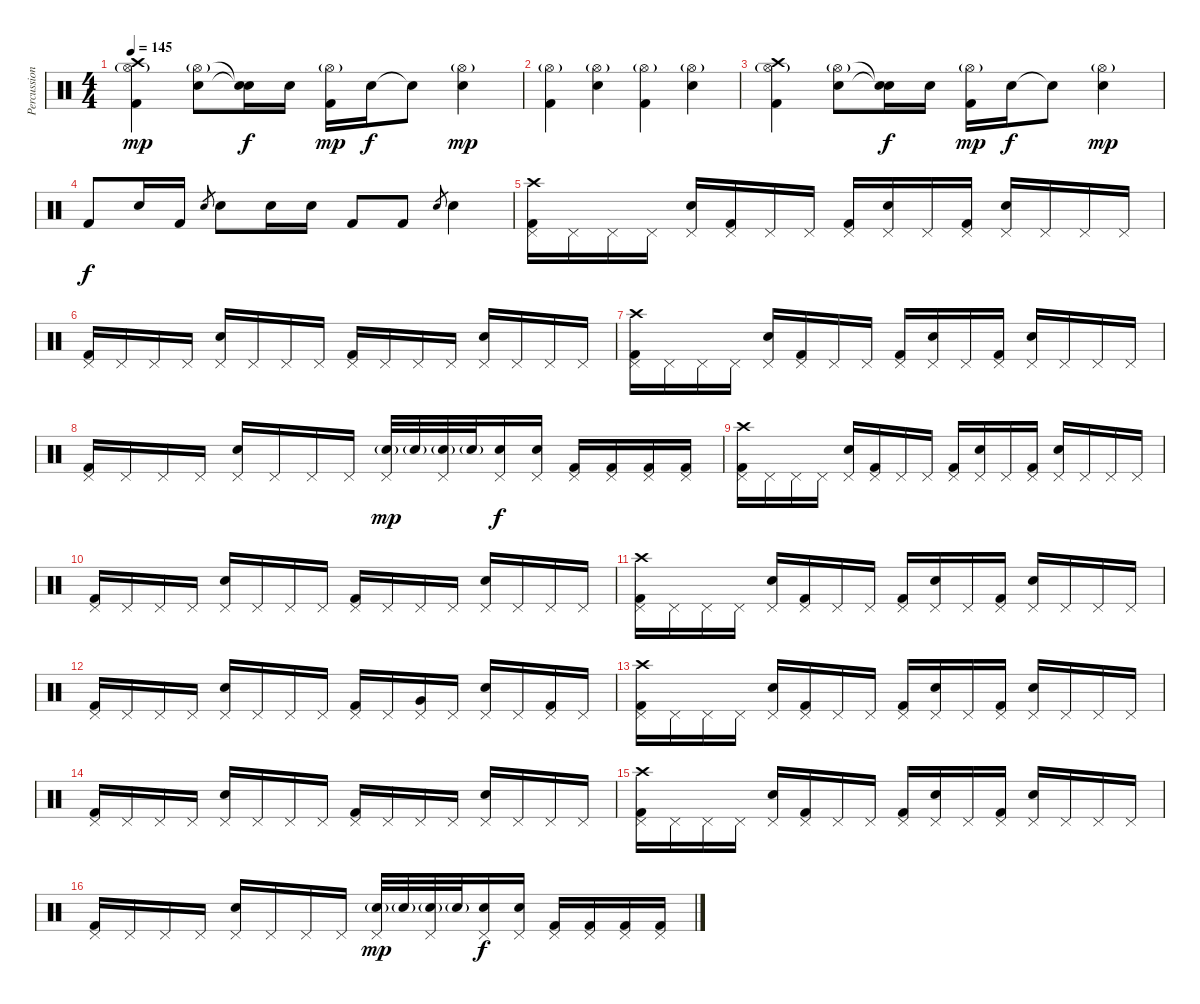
\track ("Percussion" "Percussion") {instrument percussion}
\staff {score}
\articulation defaults
\ts (4 4)
\tempo 145
\clef neutral
\ks c
("Hi-Hat (open)"{g} "Crash high (hit)" "Kick (hit) 2").4{dy mp} ("Hi-Hat (open)"{g} "Electric Snare (hit)").8 ("Snare (hit)"{t} "Snare (hit)"{t}).16{dy f} "Electric Snare (hit)".16 ("Hi-Hat (open)"{g} "Kick (hit) 2").16{dy mp} "Electric Snare (hit)".16{dy f} "Snare (hit)"{t}.8 ("Hi-Hat (open)"{g} "Electric Snare (hit)").4{dy mp} |
("Hi-Hat (open)"{g} "Kick (hit) 2").4 ("Hi-Hat (open)"{g} "Electric Snare (hit)").4 ("Hi-Hat (open)"{g} "Kick (hit) 2").4 ("Hi-Hat (open)"{g} "Electric Snare (hit)").4 |
("Hi-Hat (open)"{g} "Crash high (hit)" "Kick (hit) 2").4 ("Hi-Hat (open)"{g} "Electric Snare (hit)").8 ("Snare (hit)"{t} "Snare (hit)"{t}).16{dy f} "Electric Snare (hit)".16 ("Hi-Hat (open)"{g} "Kick (hit) 2").16{dy mp} "Electric Snare (hit)".16{dy f} "Snare (hit)"{t}.8 ("Hi-Hat (open)"{g} "Electric Snare (hit)").4{dy mp} |
"Kick (hit) 2".8{dy f} "Electric Snare (hit)".16 "Kick (hit) 2".16 "Electric Snare (hit)".8{gr} "Electric Snare (hit)".8 "Electric Snare (hit)".16 "Electric Snare (hit)".16 "Kick (hit) 2".8 "Kick (hit) 2".8 "Electric Snare (hit)".8{gr} "Electric Snare (hit)".4 |
("Pedal Hi-Hat (hit)" "Crash high (hit)" "Kick (hit) 2").16 "Pedal Hi-Hat (hit)".16 "Pedal Hi-Hat (hit)".16 "Pedal Hi-Hat (hit)".16 ("Pedal Hi-Hat (hit)" "Electric Snare (hit)").16 ("Pedal Hi-Hat (hit)" "Kick (hit) 2").16 "Pedal Hi-Hat (hit)".16 "Pedal Hi-Hat (hit)".16 ("Pedal Hi-Hat (hit)" "Kick (hit) 2").16 ("Pedal Hi-Hat (hit)" "Electric Snare (hit)").16 "Pedal Hi-Hat (hit)".16 ("Pedal Hi-Hat (hit)" "Kick (hit) 2").16 ("Pedal Hi-Hat (hit)" "Electric Snare (hit)").16 "Pedal Hi-Hat (hit)".16 "Pedal Hi-Hat (hit)".16 "Pedal Hi-Hat (hit)".16 |
("Pedal Hi-Hat (hit)" "Kick (hit) 2").16 "Pedal Hi-Hat (hit)".16 "Pedal Hi-Hat (hit)".16 "Pedal Hi-Hat (hit)".16 ("Pedal Hi-Hat (hit)" "Electric Snare (hit)").16 "Pedal Hi-Hat (hit)".16 "Pedal Hi-Hat (hit)".16 "Pedal Hi-Hat (hit)".16 ("Pedal Hi-Hat (hit)" "Kick (hit) 2").16 "Pedal Hi-Hat (hit)".16 "Pedal Hi-Hat (hit)".16 "Pedal Hi-Hat (hit)".16 ("Pedal Hi-Hat (hit)" "Electric Snare (hit)").16 "Pedal Hi-Hat (hit)".16 "Pedal Hi-Hat (hit)".16 "Pedal Hi-Hat (hit)".16 |
("Pedal Hi-Hat (hit)" "Crash high (hit)" "Kick (hit) 2").16 "Pedal Hi-Hat (hit)".16 "Pedal Hi-Hat (hit)".16 "Pedal Hi-Hat (hit)".16 ("Pedal Hi-Hat (hit)" "Electric Snare (hit)").16 ("Pedal Hi-Hat (hit)" "Kick (hit) 2").16 "Pedal Hi-Hat (hit)".16 "Pedal Hi-Hat (hit)".16 ("Pedal Hi-Hat (hit)" "Kick (hit) 2").16 ("Pedal Hi-Hat (hit)" "Electric Snare (hit)").16 "Pedal Hi-Hat (hit)".16 ("Pedal Hi-Hat (hit)" "Kick (hit) 2").16 ("Pedal Hi-Hat (hit)" "Electric Snare (hit)").16 "Pedal Hi-Hat (hit)".16 "Pedal Hi-Hat (hit)".16 "Pedal Hi-Hat (hit)".16 |
("Pedal Hi-Hat (hit)" "Kick (hit) 2").16 "Pedal Hi-Hat (hit)".16 "Pedal Hi-Hat (hit)".16 "Pedal Hi-Hat (hit)".16 ("Pedal Hi-Hat (hit)" "Electric Snare (hit)").16 "Pedal Hi-Hat (hit)".16 "Pedal Hi-Hat (hit)".16 "Pedal Hi-Hat (hit)".16 ("Pedal Hi-Hat (hit)" "Electric Snare (hit)"{g}).32{dy mp} "Electric Snare (hit)"{g}.32 ("Pedal Hi-Hat (hit)" "Electric Snare (hit)"{g}).32 "Electric Snare (hit)"{g}.32 ("Pedal Hi-Hat (hit)" "Electric Snare (hit)").16{dy f} ("Pedal Hi-Hat (hit)" "Electric Snare (hit)").16 ("Pedal Hi-Hat (hit)" "Kick (hit) 2").16 ("Pedal Hi-Hat (hit)" "Kick (hit) 2").16 ("Pedal Hi-Hat (hit)" "Kick (hit) 2").16 ("Pedal Hi-Hat (hit)" "Kick (hit) 2").16 |
("Pedal Hi-Hat (hit)" "Crash high (hit)" "Kick (hit) 2").16 "Pedal Hi-Hat (hit)".16 "Pedal Hi-Hat (hit)".16 "Pedal Hi-Hat (hit)".16 ("Pedal Hi-Hat (hit)" "Electric Snare (hit)").16 ("Pedal Hi-Hat (hit)" "Kick (hit) 2").16 "Pedal Hi-Hat (hit)".16 "Pedal Hi-Hat (hit)".16 ("Pedal Hi-Hat (hit)" "Kick (hit) 2").16 ("Pedal Hi-Hat (hit)" "Electric Snare (hit)").16 "Pedal Hi-Hat (hit)".16 ("Pedal Hi-Hat (hit)" "Kick (hit) 2").16 ("Pedal Hi-Hat (hit)" "Electric Snare (hit)").16 "Pedal Hi-Hat (hit)".16 "Pedal Hi-Hat (hit)".16 "Pedal Hi-Hat (hit)".16 |
("Pedal Hi-Hat (hit)" "Kick (hit) 2").16 "Pedal Hi-Hat (hit)".16 "Pedal Hi-Hat (hit)".16 "Pedal Hi-Hat (hit)".16 ("Pedal Hi-Hat (hit)" "Electric Snare (hit)").16 "Pedal Hi-Hat (hit)".16 "Pedal Hi-Hat (hit)".16 "Pedal Hi-Hat (hit)".16 ("Pedal Hi-Hat (hit)" "Kick (hit) 2").16 "Pedal Hi-Hat (hit)".16 "Pedal Hi-Hat (hit)".16 "Pedal Hi-Hat (hit)".16 ("Pedal Hi-Hat (hit)" "Electric Snare (hit)").16 "Pedal Hi-Hat (hit)".16 "Pedal Hi-Hat (hit)".16 "Pedal Hi-Hat (hit)".16 |
("Pedal Hi-Hat (hit)" "Crash high (hit)" "Kick (hit) 2").16 "Pedal Hi-Hat (hit)".16 "Pedal Hi-Hat (hit)".16 "Pedal Hi-Hat (hit)".16 ("Pedal Hi-Hat (hit)" "Electric Snare (hit)").16 ("Pedal Hi-Hat (hit)" "Kick (hit) 2").16 "Pedal Hi-Hat (hit)".16 "Pedal Hi-Hat (hit)".16 ("Pedal Hi-Hat (hit)" "Kick (hit) 2").16 ("Pedal Hi-Hat (hit)" "Electric Snare (hit)").16 "Pedal Hi-Hat (hit)".16 ("Pedal Hi-Hat (hit)" "Kick (hit) 2").16 ("Pedal Hi-Hat (hit)" "Electric Snare (hit)").16 "Pedal Hi-Hat (hit)".16 "Pedal Hi-Hat (hit)".16 "Pedal Hi-Hat (hit)".16 |
("Pedal Hi-Hat (hit)" "Kick (hit) 2").16 "Pedal Hi-Hat (hit)".16 "Pedal Hi-Hat (hit)".16 "Pedal Hi-Hat (hit)".16 ("Pedal Hi-Hat (hit)" "Electric Snare (hit)").16 "Pedal Hi-Hat (hit)".16 "Pedal Hi-Hat (hit)".16 "Pedal Hi-Hat (hit)".16 ("Pedal Hi-Hat (hit)" "Kick (hit) 2").16 "Pedal Hi-Hat (hit)".16 ("Pedal Hi-Hat (hit)" "Very Low Tom (hit)").16 "Pedal Hi-Hat (hit)".16 ("Pedal Hi-Hat (hit)" "Electric Snare (hit)").16 "Pedal Hi-Hat (hit)".16 ("Pedal Hi-Hat (hit)" "Kick (hit) 2").16 "Pedal Hi-Hat (hit)".16 |
("Pedal Hi-Hat (hit)" "Crash high (hit)" "Kick (hit) 2").16 "Pedal Hi-Hat (hit)".16 "Pedal Hi-Hat (hit)".16 "Pedal Hi-Hat (hit)".16 ("Pedal Hi-Hat (hit)" "Electric Snare (hit)").16 ("Pedal Hi-Hat (hit)" "Kick (hit) 2").16 "Pedal Hi-Hat (hit)".16 "Pedal Hi-Hat (hit)".16 ("Pedal Hi-Hat (hit)" "Kick (hit) 2").16 ("Pedal Hi-Hat (hit)" "Electric Snare (hit)").16 "Pedal Hi-Hat (hit)".16 ("Pedal Hi-Hat (hit)" "Kick (hit) 2").16 ("Pedal Hi-Hat (hit)" "Electric Snare (hit)").16 "Pedal Hi-Hat (hit)".16 "Pedal Hi-Hat (hit)".16 "Pedal Hi-Hat (hit)".16 |
("Pedal Hi-Hat (hit)" "Kick (hit) 2").16 "Pedal Hi-Hat (hit)".16 "Pedal Hi-Hat (hit)".16 "Pedal Hi-Hat (hit)".16 ("Pedal Hi-Hat (hit)" "Electric Snare (hit)").16 "Pedal Hi-Hat (hit)".16 "Pedal Hi-Hat (hit)".16 "Pedal Hi-Hat (hit)".16 ("Pedal Hi-Hat (hit)" "Kick (hit) 2").16 "Pedal Hi-Hat (hit)".16 "Pedal Hi-Hat (hit)".16 "Pedal Hi-Hat (hit)".16 ("Pedal Hi-Hat (hit)" "Electric Snare (hit)").16 "Pedal Hi-Hat (hit)".16 "Pedal Hi-Hat (hit)".16 "Pedal Hi-Hat (hit)".16 |
("Pedal Hi-Hat (hit)" "Crash high (hit)" "Kick (hit) 2").16 "Pedal Hi-Hat (hit)".16 "Pedal Hi-Hat (hit)".16 "Pedal Hi-Hat (hit)".16 ("Pedal Hi-Hat (hit)" "Electric Snare (hit)").16 ("Pedal Hi-Hat (hit)" "Kick (hit) 2").16 "Pedal Hi-Hat (hit)".16 "Pedal Hi-Hat (hit)".16 ("Pedal Hi-Hat (hit)" "Kick (hit) 2").16 ("Pedal Hi-Hat (hit)" "Electric Snare (hit)").16 "Pedal Hi-Hat (hit)".16 ("Pedal Hi-Hat (hit)" "Kick (hit) 2").16 ("Pedal Hi-Hat (hit)" "Electric Snare (hit)").16 "Pedal Hi-Hat (hit)".16 "Pedal Hi-Hat (hit)".16 "Pedal Hi-Hat (hit)".16 |
("Pedal Hi-Hat (hit)" "Kick (hit) 2").16 "Pedal Hi-Hat (hit)".16 "Pedal Hi-Hat (hit)".16 "Pedal Hi-Hat (hit)".16 ("Pedal Hi-Hat (hit)" "Electric Snare (hit)").16 "Pedal Hi-Hat (hit)".16 "Pedal Hi-Hat (hit)".16 "Pedal Hi-Hat (hit)".16 ("Pedal Hi-Hat (hit)" "Electric Snare (hit)"{g}).32{dy mp} "Electric Snare (hit)"{g}.32 ("Pedal Hi-Hat (hit)" "Electric Snare (hit)"{g}).32 "Electric Snare (hit)"{g}.32 ("Pedal Hi-Hat (hit)" "Electric Snare (hit)").16{dy f} ("Pedal Hi-Hat (hit)" "Electric Snare (hit)").16 ("Pedal Hi-Hat (hit)" "Kick (hit) 2").16 ("Pedal Hi-Hat (hit)" "Kick (hit) 2").16 ("Pedal Hi-Hat (hit)" "Kick (hit) 2").16 ("Pedal Hi-Hat (hit)" "Kick (hit) 2").16
